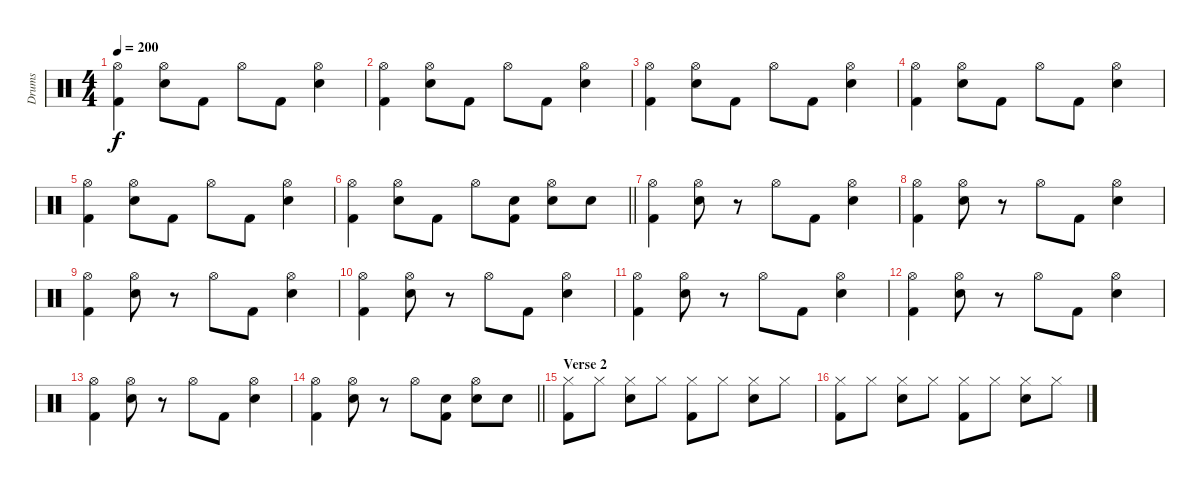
\track ("Drums" "Drums") {instrument percussion}
\staff {score}
\articulation defaults
\ts (4 4)
\tempo 200
\clef neutral
\ks c
("Hi-Hat (open)" "Kick (hit) 2").4{dy f} ("Snare (hit) 2" "Hi-Hat (open)").8 "Kick (hit) 2".8 "Hi-Hat (open)".8 "Kick (hit) 2".8 ("Snare (hit) 2" "Hi-Hat (open)").4 |
("Hi-Hat (open)" "Kick (hit) 2").4 ("Snare (hit) 2" "Hi-Hat (open)").8 "Kick (hit) 2".8 "Hi-Hat (open)".8 "Kick (hit) 2".8 ("Snare (hit) 2" "Hi-Hat (open)").4 |
("Hi-Hat (open)" "Kick (hit) 2").4 ("Snare (hit) 2" "Hi-Hat (open)").8 "Kick (hit) 2".8 "Hi-Hat (open)".8 "Kick (hit) 2".8 ("Snare (hit) 2" "Hi-Hat (open)").4 |
("Hi-Hat (open)" "Kick (hit) 2").4 ("Snare (hit) 2" "Hi-Hat (open)").8 "Kick (hit) 2".8 "Hi-Hat (open)".8 "Kick (hit) 2".8 ("Snare (hit) 2" "Hi-Hat (open)").4 |
("Hi-Hat (open)" "Kick (hit) 2").4 ("Snare (hit) 2" "Hi-Hat (open)").8 "Kick (hit) 2".8 "Hi-Hat (open)".8 "Kick (hit) 2".8 ("Snare (hit) 2" "Hi-Hat (open)").4 |
\barLineRight lightlight
("Hi-Hat (open)" "Kick (hit) 2").4 ("Snare (hit) 2" "Hi-Hat (open)").8 "Kick (hit) 2".8 "Hi-Hat (open)".8 ("Snare (hit) 2" "Kick (hit) 2").8 ("Snare (hit) 2" "Hi-Hat (open)").8 "Snare (hit) 2".8 |
("Hi-Hat (open)" "Kick (hit) 2").4 ("Snare (hit) 2" "Hi-Hat (open)").8 r.8 "Hi-Hat (open)".8 "Kick (hit) 2".8 ("Snare (hit) 2" "Hi-Hat (open)").4 |
("Hi-Hat (open)" "Kick (hit) 2").4 ("Snare (hit) 2" "Hi-Hat (open)").8 r.8 "Hi-Hat (open)".8 "Kick (hit) 2".8 ("Snare (hit) 2" "Hi-Hat (open)").4 |
("Hi-Hat (open)" "Kick (hit) 2").4 ("Snare (hit) 2" "Hi-Hat (open)").8 r.8 "Hi-Hat (open)".8 "Kick (hit) 2".8 ("Snare (hit) 2" "Hi-Hat (open)").4 |
("Hi-Hat (open)" "Kick (hit) 2").4 ("Snare (hit) 2" "Hi-Hat (open)").8 r.8 "Hi-Hat (open)".8 "Kick (hit) 2".8 ("Snare (hit) 2" "Hi-Hat (open)").4 |
("Hi-Hat (open)" "Kick (hit) 2").4 ("Snare (hit) 2" "Hi-Hat (open)").8 r.8 "Hi-Hat (open)".8 "Kick (hit) 2".8 ("Snare (hit) 2" "Hi-Hat (open)").4 |
("Hi-Hat (open)" "Kick (hit) 2").4 ("Snare (hit) 2" "Hi-Hat (open)").8 r.8 "Hi-Hat (open)".8 "Kick (hit) 2".8 ("Snare (hit) 2" "Hi-Hat (open)").4 |
("Hi-Hat (open)" "Kick (hit) 2").4 ("Snare (hit) 2" "Hi-Hat (open)").8 r.8 "Hi-Hat (open)".8 "Kick (hit) 2".8 ("Snare (hit) 2" "Hi-Hat (open)").4 |
\barLineRight lightlight
("Hi-Hat (open)" "Kick (hit) 2").4 ("Snare (hit) 2" "Hi-Hat (open)").8 r.8 "Hi-Hat (open)".8 ("Snare (hit) 2" "Kick (hit) 2").8 ("Snare (hit) 2" "Hi-Hat (open)").8 "Snare (hit) 2".8 |
\section ("" "Verse 2")
("Hi-Hat (closed)" "Kick (hit) 2").8 "Hi-Hat (closed)".8 ("Snare (hit) 2" "Hi-Hat (closed)").8 "Hi-Hat (closed)".8 ("Hi-Hat (closed)" "Kick (hit) 2").8 "Hi-Hat (closed)".8 ("Snare (hit) 2" "Hi-Hat (closed)").8 "Hi-Hat (closed)".8 |
("Hi-Hat (closed)" "Kick (hit) 2").8 "Hi-Hat (closed)".8 ("Snare (hit) 2" "Hi-Hat (closed)").8 "Hi-Hat (closed)".8 ("Hi-Hat (closed)" "Kick (hit) 2").8 "Hi-Hat (closed)".8 ("Snare (hit) 2" "Hi-Hat (closed)").8 "Hi-Hat (closed)".8
